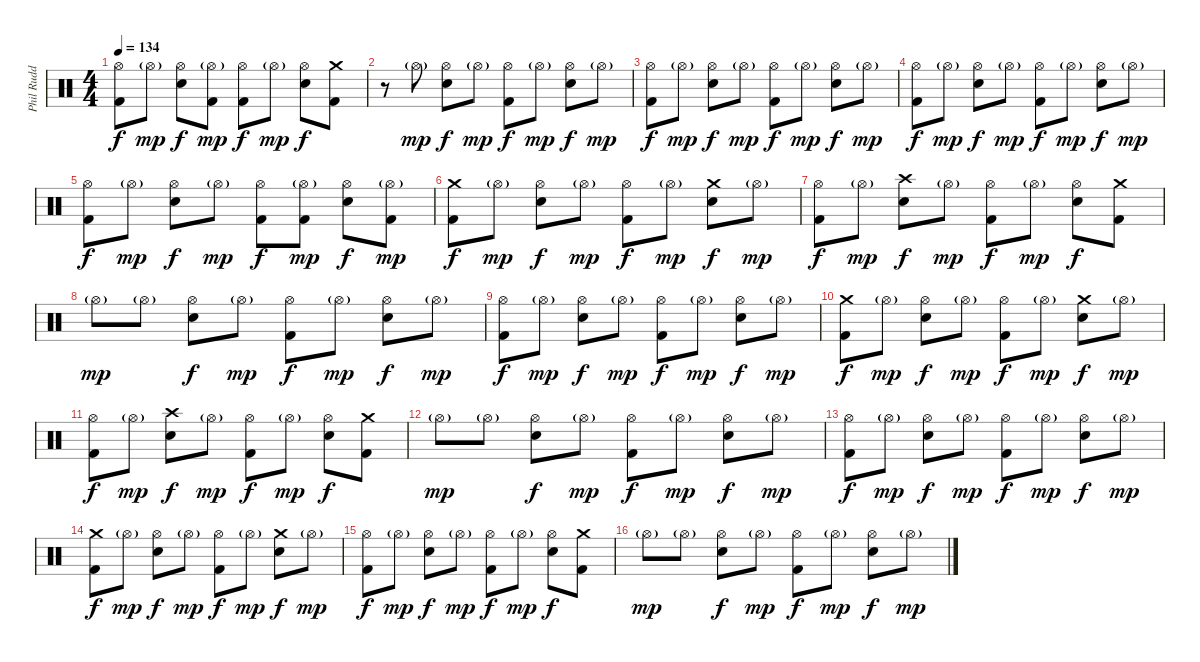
\track ("Phil Rudd" "Phil Rudd") {instrument percussion}
\staff {score}
\articulation defaults
\ts (4 4)
\tempo 134
\clef neutral
\ks c
("Hi-Hat (open)" "Kick (hit) 2").8{dy f} "Hi-Hat (open)"{g}.8{dy mp} ("Hi-Hat (open)" "Snare (hit) 2").8{dy f} ("Hi-Hat (open)"{g} "Kick (hit) 2").8{dy mp} ("Hi-Hat (open)" "Kick (hit) 2").8{dy f} "Hi-Hat (open)"{g}.8{dy mp} ("Hi-Hat (open)" "Snare (hit) 2").8{dy f} ("Crash medium (hit)" "Kick (hit) 2").8 |
r.8 "Hi-Hat (open)"{g}.8{dy mp} ("Hi-Hat (open)" "Snare (hit) 2").8{dy f} "Hi-Hat (open)"{g}.8{dy mp} ("Hi-Hat (open)" "Kick (hit) 2").8{dy f} "Hi-Hat (open)"{g}.8{dy mp} ("Hi-Hat (open)" "Snare (hit) 2").8{dy f} "Hi-Hat (open)"{g}.8{dy mp} |
("Hi-Hat (open)" "Kick (hit) 2").8{dy f} "Hi-Hat (open)"{g}.8{dy mp} ("Hi-Hat (open)" "Snare (hit) 2").8{dy f} "Hi-Hat (open)"{g}.8{dy mp} ("Hi-Hat (open)" "Kick (hit) 2").8{dy f} "Hi-Hat (open)"{g}.8{dy mp} ("Hi-Hat (open)" "Snare (hit) 2").8{dy f} "Hi-Hat (open)"{g}.8{dy mp} |
("Hi-Hat (open)" "Kick (hit) 2").8{dy f} "Hi-Hat (open)"{g}.8{dy mp} ("Hi-Hat (open)" "Snare (hit) 2").8{dy f} "Hi-Hat (open)"{g}.8{dy mp} ("Hi-Hat (open)" "Kick (hit) 2").8{dy f} "Hi-Hat (open)"{g}.8{dy mp} ("Hi-Hat (open)" "Snare (hit) 2").8{dy f} "Hi-Hat (open)"{g}.8{dy mp} |
("Hi-Hat (open)" "Kick (hit) 2").8{dy f} "Hi-Hat (open)"{g}.8{dy mp} ("Hi-Hat (open)" "Snare (hit) 2").8{dy f} "Hi-Hat (open)"{g}.8{dy mp} ("Hi-Hat (open)" "Kick (hit) 2").8{dy f} ("Hi-Hat (open)"{g} "Kick (hit) 2").8{dy mp} ("Hi-Hat (open)" "Snare (hit) 2").8{dy f} ("Hi-Hat (open)"{g} "Kick (hit) 2").8{dy mp} |
("Crash medium (hit)" "Kick (hit) 2").8{dy f} "Hi-Hat (open)"{g}.8{dy mp} ("Hi-Hat (open)" "Snare (hit) 2").8{dy f} "Hi-Hat (open)"{g}.8{dy mp} ("Hi-Hat (open)" "Kick (hit) 2").8{dy f} "Hi-Hat (open)"{g}.8{dy mp} ("Crash medium (hit)" "Snare (hit) 2").8{dy f} "Hi-Hat (open)"{g}.8{dy mp} |
("Hi-Hat (open)" "Kick (hit) 2").8{dy f} "Hi-Hat (open)"{g}.8{dy mp} ("Crash high (hit)" "Snare (hit) 2").8{dy f} "Hi-Hat (open)"{g}.8{dy mp} ("Hi-Hat (open)" "Kick (hit) 2").8{dy f} "Hi-Hat (open)"{g}.8{dy mp} ("Hi-Hat (open)" "Snare (hit) 2").8{dy f} ("Crash medium (hit)" "Kick (hit) 2").8 |
"Hi-Hat (open)"{g}.8{dy mp} "Hi-Hat (open)"{g}.8 ("Hi-Hat (open)" "Snare (hit) 2").8{dy f} "Hi-Hat (open)"{g}.8{dy mp} ("Hi-Hat (open)" "Kick (hit) 2").8{dy f} "Hi-Hat (open)"{g}.8{dy mp} ("Hi-Hat (open)" "Snare (hit) 2").8{dy f} "Hi-Hat (open)"{g}.8{dy mp} |
("Hi-Hat (open)" "Kick (hit) 2").8{dy f} "Hi-Hat (open)"{g}.8{dy mp} ("Hi-Hat (open)" "Snare (hit) 2").8{dy f} "Hi-Hat (open)"{g}.8{dy mp} ("Hi-Hat (open)" "Kick (hit) 2").8{dy f} "Hi-Hat (open)"{g}.8{dy mp} ("Hi-Hat (open)" "Snare (hit) 2").8{dy f} "Hi-Hat (open)"{g}.8{dy mp} |
("Crash medium (hit)" "Kick (hit) 2").8{dy f} "Hi-Hat (open)"{g}.8{dy mp} ("Hi-Hat (open)" "Snare (hit) 2").8{dy f} "Hi-Hat (open)"{g}.8{dy mp} ("Hi-Hat (open)" "Kick (hit) 2").8{dy f} "Hi-Hat (open)"{g}.8{dy mp} ("Crash medium (hit)" "Snare (hit) 2").8{dy f} "Hi-Hat (open)"{g}.8{dy mp} |
("Hi-Hat (open)" "Kick (hit) 2").8{dy f} "Hi-Hat (open)"{g}.8{dy mp} ("Crash high (hit)" "Snare (hit) 2").8{dy f} "Hi-Hat (open)"{g}.8{dy mp} ("Hi-Hat (open)" "Kick (hit) 2").8{dy f} "Hi-Hat (open)"{g}.8{dy mp} ("Hi-Hat (open)" "Snare (hit) 2").8{dy f} ("Crash medium (hit)" "Kick (hit) 2").8 |
"Hi-Hat (open)"{g}.8{dy mp} "Hi-Hat (open)"{g}.8 ("Hi-Hat (open)" "Snare (hit) 2").8{dy f} "Hi-Hat (open)"{g}.8{dy mp} ("Hi-Hat (open)" "Kick (hit) 2").8{dy f} "Hi-Hat (open)"{g}.8{dy mp} ("Hi-Hat (open)" "Snare (hit) 2").8{dy f} "Hi-Hat (open)"{g}.8{dy mp} |
("Hi-Hat (open)" "Kick (hit) 2").8{dy f} "Hi-Hat (open)"{g}.8{dy mp} ("Hi-Hat (open)" "Snare (hit) 2").8{dy f} "Hi-Hat (open)"{g}.8{dy mp} ("Hi-Hat (open)" "Kick (hit) 2").8{dy f} "Hi-Hat (open)"{g}.8{dy mp} ("Hi-Hat (open)" "Snare (hit) 2").8{dy f} "Hi-Hat (open)"{g}.8{dy mp} |
("Crash medium (hit)" "Kick (hit) 2").8{dy f} "Hi-Hat (open)"{g}.8{dy mp} ("Hi-Hat (open)" "Snare (hit) 2").8{dy f} "Hi-Hat (open)"{g}.8{dy mp} ("Hi-Hat (open)" "Kick (hit) 2").8{dy f} "Hi-Hat (open)"{g}.8{dy mp} ("Crash medium (hit)" "Snare (hit) 2").8{dy f} "Hi-Hat (open)"{g}.8{dy mp} |
("Hi-Hat (open)" "Kick (hit) 2").8{dy f} "Hi-Hat (open)"{g}.8{dy mp} ("Hi-Hat (open)" "Snare (hit) 2").8{dy f} "Hi-Hat (open)"{g}.8{dy mp} ("Hi-Hat (open)" "Kick (hit) 2").8{dy f} "Hi-Hat (open)"{g}.8{dy mp} ("Hi-Hat (open)" "Snare (hit) 2").8{dy f} ("Crash medium (hit)" "Kick (hit) 2").8 |
"Hi-Hat (open)"{g}.8{dy mp} "Hi-Hat (open)"{g}.8 ("Hi-Hat (open)" "Snare (hit) 2").8{dy f} "Hi-Hat (open)"{g}.8{dy mp} ("Hi-Hat (open)" "Kick (hit) 2").8{dy f} "Hi-Hat (open)"{g}.8{dy mp} ("Hi-Hat (open)" "Snare (hit) 2").8{dy f} "Hi-Hat (open)"{g}.8{dy mp}
